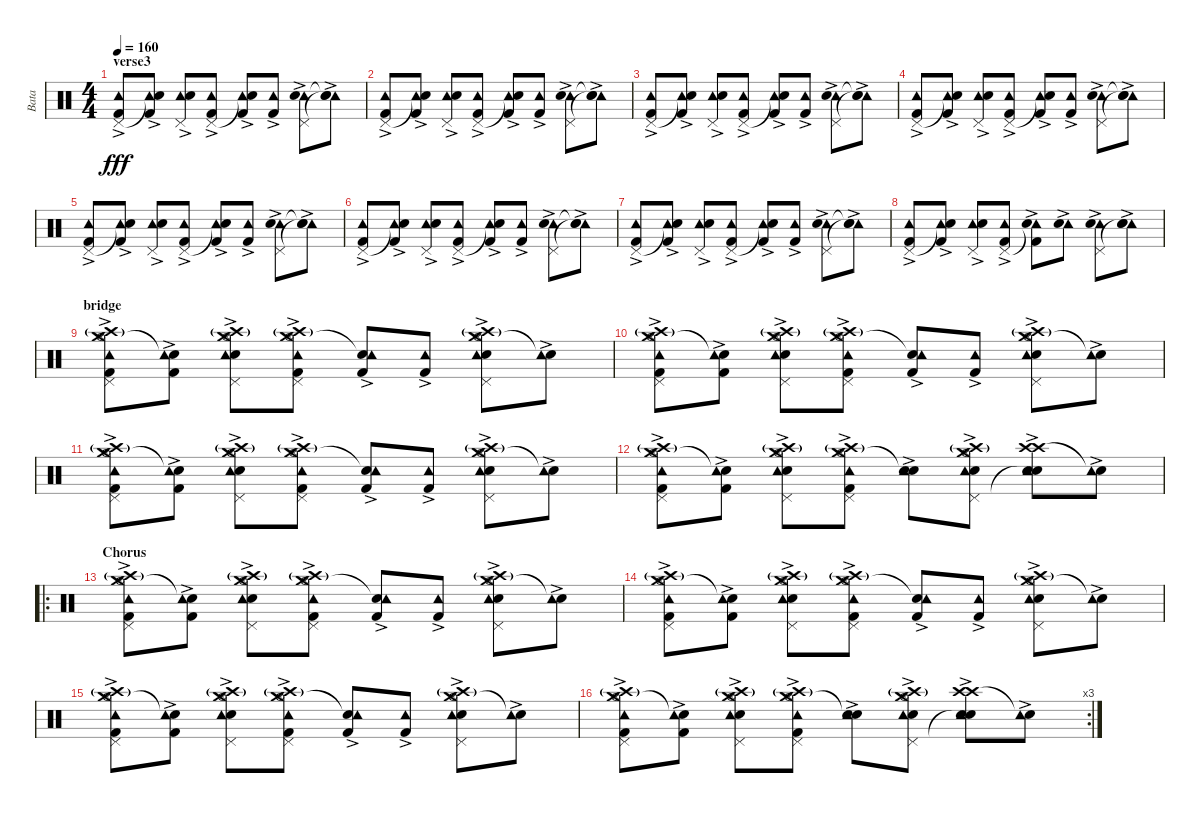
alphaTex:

\track ("Bata" "Bata") {instrument percussion}
\staff {score}
\articulation defaults
\ts (4 4)
\section ("" "verse3")
\tempo 160
\clef neutral
\ks c
("Tambourine (hit)"{ac} "Pedal Hi-Hat (hit)" "Kick (hit) 2").8{dy fff} ("Tambourine (hit)"{ac} "Snare (hit)"{t} "Kick (hit) 2").8 ("Tambourine (hit)"{ac} "Pedal Hi-Hat (hit)"{ac} "Snare (hit) 2").8 ("Tambourine (hit)"{ac} "Pedal Hi-Hat (hit)" "Kick (hit) 2").8 ("Tambourine (hit)"{ac} "Snare (hit)"{t} "Kick (hit) 2").8 ("Tambourine (hit)"{ac} "Kick (hit) 2").8 ("Tambourine (hit)"{ac} "Pedal Hi-Hat (hit)" "Snare (hit) 2").8 ("Tambourine (hit)"{ac} "Snare (hit)"{t} "Snare (hit)"{t}).8 |
("Tambourine (hit)"{ac} "Pedal Hi-Hat (hit)" "Kick (hit) 2").8 ("Tambourine (hit)"{ac} "Snare (hit)"{t} "Kick (hit) 2").8 ("Tambourine (hit)"{ac} "Pedal Hi-Hat (hit)"{ac} "Snare (hit) 2").8 ("Tambourine (hit)"{ac} "Pedal Hi-Hat (hit)" "Kick (hit) 2").8 ("Tambourine (hit)"{ac} "Snare (hit)"{t} "Kick (hit) 2").8 ("Tambourine (hit)"{ac} "Kick (hit) 2").8 ("Tambourine (hit)"{ac} "Pedal Hi-Hat (hit)" "Snare (hit) 2").8 ("Tambourine (hit)"{ac} "Snare (hit)"{t} "Snare (hit)"{t}).8 |
("Tambourine (hit)"{ac} "Pedal Hi-Hat (hit)" "Kick (hit) 2").8 ("Tambourine (hit)"{ac} "Snare (hit)"{t} "Kick (hit) 2").8 ("Tambourine (hit)"{ac} "Pedal Hi-Hat (hit)"{ac} "Snare (hit) 2").8 ("Tambourine (hit)"{ac} "Pedal Hi-Hat (hit)" "Kick (hit) 2").8 ("Tambourine (hit)"{ac} "Snare (hit)"{t} "Kick (hit) 2").8 ("Tambourine (hit)"{ac} "Kick (hit) 2").8 ("Tambourine (hit)"{ac} "Pedal Hi-Hat (hit)" "Snare (hit) 2").8 ("Tambourine (hit)"{ac} "Snare (hit)"{t} "Snare (hit)"{t}).8 |
("Tambourine (hit)"{ac} "Pedal Hi-Hat (hit)" "Kick (hit) 2").8 ("Tambourine (hit)"{ac} "Snare (hit)"{t} "Kick (hit) 2").8 ("Tambourine (hit)"{ac} "Pedal Hi-Hat (hit)"{ac} "Snare (hit) 2").8 ("Tambourine (hit)"{ac} "Pedal Hi-Hat (hit)" "Kick (hit) 2").8 ("Tambourine (hit)"{ac} "Snare (hit)"{t} "Kick (hit) 2").8 ("Tambourine (hit)"{ac} "Kick (hit) 2").8 ("Tambourine (hit)"{ac} "Pedal Hi-Hat (hit)" "Snare (hit) 2").8 ("Tambourine (hit)"{ac} "Snare (hit)"{t} "Snare (hit)"{t}).8 |
("Tambourine (hit)"{ac} "Pedal Hi-Hat (hit)" "Kick (hit) 2").8 ("Tambourine (hit)"{ac} "Snare (hit)"{t} "Kick (hit) 2").8 ("Tambourine (hit)"{ac} "Pedal Hi-Hat (hit)"{ac} "Snare (hit) 2").8 ("Tambourine (hit)"{ac} "Pedal Hi-Hat (hit)" "Kick (hit) 2").8 ("Tambourine (hit)"{ac} "Snare (hit)"{t} "Kick (hit) 2").8 ("Tambourine (hit)"{ac} "Kick (hit) 2").8 ("Tambourine (hit)"{ac} "Pedal Hi-Hat (hit)" "Snare (hit) 2").8 ("Tambourine (hit)"{ac} "Snare (hit)"{t} "Snare (hit)"{t}).8 |
("Tambourine (hit)"{ac} "Pedal Hi-Hat (hit)" "Kick (hit) 2").8 ("Tambourine (hit)"{ac} "Snare (hit)"{t} "Kick (hit) 2").8 ("Tambourine (hit)"{ac} "Pedal Hi-Hat (hit)"{ac} "Snare (hit) 2").8 ("Tambourine (hit)"{ac} "Pedal Hi-Hat (hit)" "Kick (hit) 2").8 ("Tambourine (hit)"{ac} "Snare (hit)"{t} "Kick (hit) 2").8 ("Tambourine (hit)"{ac} "Kick (hit) 2").8 ("Tambourine (hit)"{ac} "Pedal Hi-Hat (hit)" "Snare (hit) 2").8 ("Tambourine (hit)"{ac} "Snare (hit)"{t} "Snare (hit)"{t}).8 |
("Tambourine (hit)"{ac} "Pedal Hi-Hat (hit)" "Kick (hit) 2").8 ("Tambourine (hit)"{ac} "Snare (hit)"{t} "Kick (hit) 2").8 ("Tambourine (hit)"{ac} "Pedal Hi-Hat (hit)"{ac} "Snare (hit) 2").8 ("Tambourine (hit)"{ac} "Pedal Hi-Hat (hit)" "Kick (hit) 2").8 ("Tambourine (hit)"{ac} "Snare (hit)"{t} "Kick (hit) 2").8 ("Tambourine (hit)"{ac} "Kick (hit) 2").8 ("Tambourine (hit)"{ac} "Pedal Hi-Hat (hit)" "Snare (hit) 2").8 ("Tambourine (hit)"{ac} "Snare (hit)"{t} "Snare (hit)"{t}).8 |
("Tambourine (hit)"{ac} "Pedal Hi-Hat (hit)" "Kick (hit) 2").8 ("Tambourine (hit)"{ac} "Snare (hit)"{t} "Kick (hit) 2").8 ("Tambourine (hit)"{ac} "Pedal Hi-Hat (hit)"{ac} "Snare (hit) 2").8 ("Tambourine (hit)"{ac} "Pedal Hi-Hat (hit)" "Kick (hit) 2").8 ("Tambourine (hit)"{ac} "Snare (hit)"{t} "Kick (hit) 2").8 ("Tambourine (hit)"{ac} "Snare (hit) 2").8 ("Tambourine (hit)"{ac} "Pedal Hi-Hat (hit)" "Snare (hit) 2").8 ("Tambourine (hit)"{ac} "Snare (hit)"{t} "Snare (hit) 2").8 |
\section ("" "bridge")
("Crash medium (hit)" "Crash high (hit)"{g} "Pedal Hi-Hat (hit)" "Hi-Hat (open)" "Tambourine (hit)"{ac} "Kick (hit) 2").8 ("Snare (hit)"{t} "Tambourine (hit)"{ac} "Kick (hit) 2").8 ("Crash medium (hit)"{ac} "Crash high (hit)"{g} "Pedal Hi-Hat (hit)"{ac} "Hi-Hat (open)" "Snare (hit) 2" "Tambourine (hit)"{ac}).8 ("Crash medium (hit)" "Crash high (hit)"{g} "Pedal Hi-Hat (hit)" "Hi-Hat (open)" "Tambourine (hit)"{ac} "Kick (hit) 2").8 ("Snare (hit)"{t} "Tambourine (hit)"{ac} "Kick (hit) 2").8 ("Tambourine (hit)"{ac} "Kick (hit) 2").8 ("Crash medium (hit)" "Crash high (hit)"{g} "Pedal Hi-Hat (hit)" "Hi-Hat (open)" "Snare (hit) 2" "Tambourine (hit)"{ac}).8 ("Snare (hit)"{t} "Tambourine (hit)"{ac}).8 |
("Crash medium (hit)" "Crash high (hit)"{g} "Pedal Hi-Hat (hit)" "Hi-Hat (open)" "Tambourine (hit)"{ac} "Kick (hit) 2").8 ("Snare (hit)"{t} "Tambourine (hit)"{ac} "Kick (hit) 2").8 ("Crash medium (hit)"{ac} "Crash high (hit)"{g} "Pedal Hi-Hat (hit)"{ac} "Hi-Hat (open)" "Snare (hit) 2" "Tambourine (hit)"{ac}).8 ("Crash medium (hit)" "Crash high (hit)"{g} "Pedal Hi-Hat (hit)" "Hi-Hat (open)" "Tambourine (hit)"{ac} "Kick (hit) 2").8 ("Snare (hit)"{t} "Tambourine (hit)"{ac} "Kick (hit) 2").8 ("Tambourine (hit)"{ac} "Kick (hit) 2").8 ("Crash medium (hit)" "Crash high (hit)"{g} "Pedal Hi-Hat (hit)" "Hi-Hat (open)" "Snare (hit) 2" "Tambourine (hit)"{ac}).8 ("Snare (hit)"{t} "Tambourine (hit)"{ac}).8 |
("Crash medium (hit)" "Crash high (hit)"{g} "Pedal Hi-Hat (hit)" "Hi-Hat (open)" "Tambourine (hit)"{ac} "Kick (hit) 2").8 ("Snare (hit)"{t} "Tambourine (hit)"{ac} "Kick (hit) 2").8 ("Crash medium (hit)"{ac} "Crash high (hit)"{g} "Pedal Hi-Hat (hit)"{ac} "Hi-Hat (open)" "Snare (hit) 2" "Tambourine (hit)"{ac}).8 ("Crash medium (hit)" "Crash high (hit)"{g} "Pedal Hi-Hat (hit)" "Hi-Hat (open)" "Tambourine (hit)"{ac} "Kick (hit) 2").8 ("Snare (hit)"{t} "Tambourine (hit)"{ac} "Kick (hit) 2").8 ("Tambourine (hit)"{ac} "Kick (hit) 2").8 ("Crash medium (hit)" "Crash high (hit)"{g} "Pedal Hi-Hat (hit)" "Hi-Hat (open)" "Snare (hit) 2" "Tambourine (hit)"{ac}).8 ("Snare (hit)"{t} "Tambourine (hit)"{ac}).8 |
("Crash medium (hit)" "Crash high (hit)"{g} "Pedal Hi-Hat (hit)" "Hi-Hat (open)" "Tambourine (hit)"{ac} "Kick (hit) 2").8 ("Snare (hit)"{t} "Tambourine (hit)"{ac} "Kick (hit) 2").8 ("Crash medium (hit)"{ac} "Crash high (hit)"{g} "Pedal Hi-Hat (hit)"{ac} "Hi-Hat (open)" "Snare (hit) 2" "Tambourine (hit)"{ac}).8 ("Crash medium (hit)" "Crash high (hit)"{g} "Pedal Hi-Hat (hit)" "Hi-Hat (open)" "Tambourine (hit)"{ac} "Kick (hit) 2").8 ("Snare (hit)"{t} "Snare (hit) 2" "Tambourine (hit)"{ac}).8 ("Crash medium (hit)" "Crash high (hit)"{g} "Pedal Hi-Hat (hit)" "Hi-Hat (open)" "Snare (hit) 2" "Tambourine (hit)"{ac}).8 ("Crash high (hit)" "Crash high (hit)" "Snare (hit)"{t} "Snare (hit) 2" "Tambourine (hit)"{ac}).8 ("Snare (hit)"{t} "Tambourine (hit)"{ac}).8 |
\ro
\section ("" "Chorus")
("Crash medium (hit)" "Crash high (hit)"{g} "Pedal Hi-Hat (hit)" "Hi-Hat (open)" "Tambourine (hit)"{ac} "Kick (hit) 2").8 ("Snare (hit)"{t} "Tambourine (hit)"{ac} "Kick (hit) 2").8 ("Crash medium (hit)"{ac} "Crash high (hit)"{g} "Pedal Hi-Hat (hit)"{ac} "Hi-Hat (open)" "Snare (hit) 2" "Tambourine (hit)"{ac}).8 ("Crash medium (hit)" "Crash high (hit)"{g} "Pedal Hi-Hat (hit)" "Hi-Hat (open)" "Tambourine (hit)"{ac} "Kick (hit) 2").8 ("Snare (hit)"{t} "Tambourine (hit)"{ac} "Kick (hit) 2").8 ("Tambourine (hit)"{ac} "Kick (hit) 2").8 ("Crash medium (hit)" "Crash high (hit)"{g} "Pedal Hi-Hat (hit)" "Hi-Hat (open)" "Snare (hit) 2" "Tambourine (hit)"{ac}).8 ("Snare (hit)"{t} "Tambourine (hit)"{ac}).8 |
("Crash medium (hit)" "Crash high (hit)"{g} "Pedal Hi-Hat (hit)" "Hi-Hat (open)" "Tambourine (hit)"{ac} "Kick (hit) 2").8 ("Snare (hit)"{t} "Tambourine (hit)"{ac} "Kick (hit) 2").8 ("Crash medium (hit)"{ac} "Crash high (hit)"{g} "Pedal Hi-Hat (hit)"{ac} "Hi-Hat (open)" "Snare (hit) 2" "Tambourine (hit)"{ac}).8 ("Crash medium (hit)" "Crash high (hit)"{g} "Pedal Hi-Hat (hit)" "Hi-Hat (open)" "Tambourine (hit)"{ac} "Kick (hit) 2").8 ("Snare (hit)"{t} "Tambourine (hit)"{ac} "Kick (hit) 2").8 ("Tambourine (hit)"{ac} "Kick (hit) 2").8 ("Crash medium (hit)" "Crash high (hit)"{g} "Pedal Hi-Hat (hit)" "Hi-Hat (open)" "Snare (hit) 2" "Tambourine (hit)"{ac}).8 ("Snare (hit)"{t} "Tambourine (hit)"{ac}).8 |
("Crash medium (hit)" "Crash high (hit)"{g} "Pedal Hi-Hat (hit)" "Hi-Hat (open)" "Tambourine (hit)"{ac} "Kick (hit) 2").8 ("Snare (hit)"{t} "Tambourine (hit)"{ac} "Kick (hit) 2").8 ("Crash medium (hit)"{ac} "Crash high (hit)"{g} "Pedal Hi-Hat (hit)"{ac} "Hi-Hat (open)" "Snare (hit) 2" "Tambourine (hit)"{ac}).8 ("Crash medium (hit)" "Crash high (hit)"{g} "Pedal Hi-Hat (hit)" "Hi-Hat (open)" "Tambourine (hit)"{ac} "Kick (hit) 2").8 ("Snare (hit)"{t} "Tambourine (hit)"{ac} "Kick (hit) 2").8 ("Tambourine (hit)"{ac} "Kick (hit) 2").8 ("Crash medium (hit)" "Crash high (hit)"{g} "Pedal Hi-Hat (hit)" "Hi-Hat (open)" "Snare (hit) 2" "Tambourine (hit)"{ac}).8 ("Snare (hit)"{t} "Tambourine (hit)"{ac}).8 |
\rc 3
("Crash medium (hit)" "Crash high (hit)"{g} "Pedal Hi-Hat (hit)" "Hi-Hat (open)" "Tambourine (hit)"{ac} "Kick (hit) 2").8 ("Snare (hit)"{t} "Tambourine (hit)"{ac} "Kick (hit) 2").8 ("Crash medium (hit)"{ac} "Crash high (hit)"{g} "Pedal Hi-Hat (hit)"{ac} "Hi-Hat (open)" "Snare (hit) 2" "Tambourine (hit)"{ac}).8 ("Crash medium (hit)" "Crash high (hit)"{g} "Pedal Hi-Hat (hit)" "Hi-Hat (open)" "Tambourine (hit)"{ac} "Kick (hit) 2").8 ("Snare (hit)"{t} "Snare (hit) 2" "Tambourine (hit)"{ac}).8 ("Crash medium (hit)" "Crash high (hit)"{g} "Pedal Hi-Hat (hit)" "Hi-Hat (open)" "Snare (hit) 2" "Tambourine (hit)"{ac}).8 ("Crash high (hit)" "Crash high (hit)" "Snare (hit)"{t} "Snare (hit) 2" "Tambourine (hit)"{ac}).8 ("Snare (hit)"{t} "Tambourine (hit)"{ac}).8
